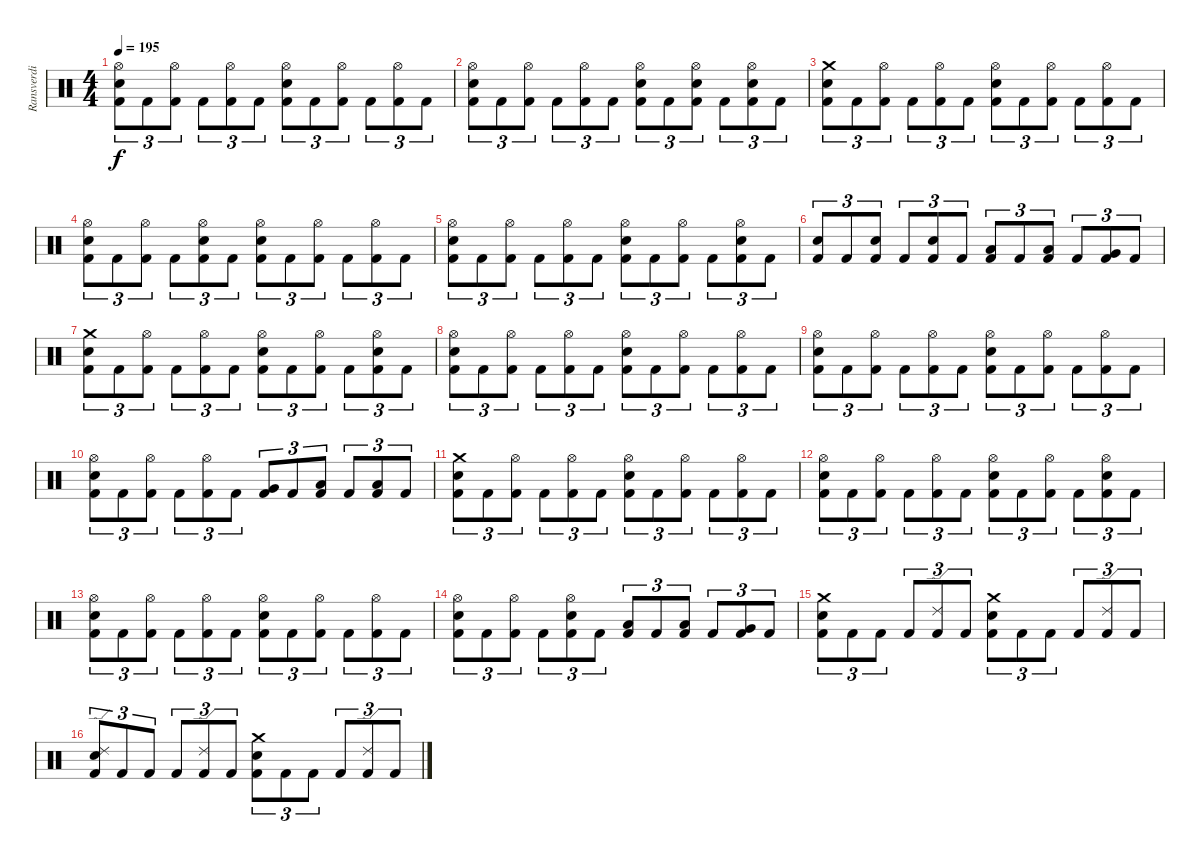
\track ("Ransverdi" "Ransverdi") {instrument percussion}
\staff {score}
\articulation defaults
\ts (4 4)
\tempo 195
\clef neutral
\ks c
("Hi-Hat (open)" "Snare (hit) 2" "Kick (hit) 2").8{tu (3 2) dy f} "Kick (hit) 2".8{tu (3 2)} ("Hi-Hat (open)" "Kick (hit) 2").8{tu (3 2)} "Kick (hit) 2".8{tu (3 2)} ("Hi-Hat (open)" "Kick (hit) 2").8{tu (3 2)} "Kick (hit) 2".8{tu (3 2)} ("Hi-Hat (open)" "Snare (hit) 2" "Kick (hit) 2").8{tu (3 2)} "Kick (hit) 2".8{tu (3 2)} ("Hi-Hat (open)" "Kick (hit) 2").8{tu (3 2)} "Kick (hit) 2".8{tu (3 2)} ("Hi-Hat (open)" "Kick (hit) 2").8{tu (3 2)} "Kick (hit) 2".8{tu (3 2)} |
("Hi-Hat (open)" "Snare (hit) 2" "Kick (hit) 2").8{tu (3 2)} "Kick (hit) 2".8{tu (3 2)} ("Hi-Hat (open)" "Kick (hit) 2").8{tu (3 2)} "Kick (hit) 2".8{tu (3 2)} ("Hi-Hat (open)" "Kick (hit) 2").8{tu (3 2)} "Kick (hit) 2".8{tu (3 2)} ("Hi-Hat (open)" "Snare (hit) 2" "Kick (hit) 2").8{tu (3 2)} "Kick (hit) 2".8{tu (3 2)} ("Hi-Hat (open)" "Snare (hit) 2" "Kick (hit) 2").8{tu (3 2)} "Kick (hit) 2".8{tu (3 2)} ("Hi-Hat (open)" "Snare (hit) 2" "Kick (hit) 2").8{tu (3 2)} "Kick (hit) 2".8{tu (3 2)} |
("Crash medium (hit)" "Snare (hit) 2" "Kick (hit) 2").8{tu (3 2)} "Kick (hit) 2".8{tu (3 2)} ("Hi-Hat (open)" "Kick (hit) 2").8{tu (3 2)} "Kick (hit) 2".8{tu (3 2)} ("Hi-Hat (open)" "Kick (hit) 2").8{tu (3 2)} "Kick (hit) 2".8{tu (3 2)} ("Hi-Hat (open)" "Snare (hit) 2" "Kick (hit) 2").8{tu (3 2)} "Kick (hit) 2".8{tu (3 2)} ("Hi-Hat (open)" "Kick (hit) 2").8{tu (3 2)} "Kick (hit) 2".8{tu (3 2)} ("Hi-Hat (open)" "Kick (hit) 2").8{tu (3 2)} "Kick (hit) 2".8{tu (3 2)} |
("Hi-Hat (open)" "Snare (hit) 2" "Kick (hit) 2").8{tu (3 2)} "Kick (hit) 2".8{tu (3 2)} ("Hi-Hat (open)" "Kick (hit) 2").8{tu (3 2)} "Kick (hit) 2".8{tu (3 2)} ("Hi-Hat (open)" "Snare (hit) 2" "Kick (hit) 2").8{tu (3 2)} "Kick (hit) 2".8{tu (3 2)} ("Hi-Hat (open)" "Snare (hit) 2" "Kick (hit) 2").8{tu (3 2)} "Kick (hit) 2".8{tu (3 2)} ("Hi-Hat (open)" "Kick (hit) 2").8{tu (3 2)} "Kick (hit) 2".8{tu (3 2)} ("Hi-Hat (open)" "Kick (hit) 2").8{tu (3 2)} "Kick (hit) 2".8{tu (3 2)} |
("Hi-Hat (open)" "Snare (hit) 2" "Kick (hit) 2").8{tu (3 2)} "Kick (hit) 2".8{tu (3 2)} ("Hi-Hat (open)" "Kick (hit) 2").8{tu (3 2)} "Kick (hit) 2".8{tu (3 2)} ("Hi-Hat (open)" "Kick (hit) 2").8{tu (3 2)} "Kick (hit) 2".8{tu (3 2)} ("Hi-Hat (open)" "Snare (hit) 2" "Kick (hit) 2").8{tu (3 2)} "Kick (hit) 2".8{tu (3 2)} ("Hi-Hat (open)" "Kick (hit) 2").8{tu (3 2)} "Kick (hit) 2".8{tu (3 2)} ("Hi-Hat (open)" "Snare (hit) 2" "Kick (hit) 2").8{tu (3 2)} "Kick (hit) 2".8{tu (3 2)} |
("Snare (hit) 2" "Kick (hit) 2").8{tu (3 2)} "Kick (hit) 2".8{tu (3 2)} ("Snare (hit) 2" "Kick (hit) 2").8{tu (3 2)} "Kick (hit) 2".8{tu (3 2)} ("Snare (hit) 2" "Kick (hit) 2").8{tu (3 2)} "Kick (hit) 2".8{tu (3 2)} ("Low Tom (hit)" "Kick (hit) 2").8{tu (3 2)} "Kick (hit) 2".8{tu (3 2)} ("Low Tom (hit)" "Kick (hit) 2").8{tu (3 2)} "Kick (hit) 2".8{tu (3 2)} ("Very Low Tom (hit)" "Kick (hit) 2").8{tu (3 2)} "Kick (hit) 2".8{tu (3 2)} |
("Crash medium (hit)" "Snare (hit) 2" "Kick (hit) 2").8{tu (3 2)} "Kick (hit) 2".8{tu (3 2)} ("Hi-Hat (open)" "Kick (hit) 2").8{tu (3 2)} "Kick (hit) 2".8{tu (3 2)} ("Hi-Hat (open)" "Kick (hit) 2").8{tu (3 2)} "Kick (hit) 2".8{tu (3 2)} ("Hi-Hat (open)" "Snare (hit) 2" "Kick (hit) 2").8{tu (3 2)} "Kick (hit) 2".8{tu (3 2)} ("Hi-Hat (open)" "Kick (hit) 2").8{tu (3 2)} "Kick (hit) 2".8{tu (3 2)} ("Hi-Hat (open)" "Snare (hit) 2" "Kick (hit) 2").8{tu (3 2)} "Kick (hit) 2".8{tu (3 2)} |
("Hi-Hat (open)" "Snare (hit) 2" "Kick (hit) 2").8{tu (3 2)} "Kick (hit) 2".8{tu (3 2)} ("Hi-Hat (open)" "Kick (hit) 2").8{tu (3 2)} "Kick (hit) 2".8{tu (3 2)} ("Hi-Hat (open)" "Kick (hit) 2").8{tu (3 2)} "Kick (hit) 2".8{tu (3 2)} ("Hi-Hat (open)" "Snare (hit) 2" "Kick (hit) 2").8{tu (3 2)} "Kick (hit) 2".8{tu (3 2)} ("Hi-Hat (open)" "Kick (hit) 2").8{tu (3 2)} "Kick (hit) 2".8{tu (3 2)} ("Hi-Hat (open)" "Kick (hit) 2").8{tu (3 2)} "Kick (hit) 2".8{tu (3 2)} |
("Hi-Hat (open)" "Snare (hit) 2" "Kick (hit) 2").8{tu (3 2)} "Kick (hit) 2".8{tu (3 2)} ("Hi-Hat (open)" "Kick (hit) 2").8{tu (3 2)} "Kick (hit) 2".8{tu (3 2)} ("Hi-Hat (open)" "Kick (hit) 2").8{tu (3 2)} "Kick (hit) 2".8{tu (3 2)} ("Hi-Hat (open)" "Snare (hit) 2" "Kick (hit) 2").8{tu (3 2)} "Kick (hit) 2".8{tu (3 2)} ("Hi-Hat (open)" "Kick (hit) 2").8{tu (3 2)} "Kick (hit) 2".8{tu (3 2)} ("Hi-Hat (open)" "Kick (hit) 2").8{tu (3 2)} "Kick (hit) 2".8{tu (3 2)} |
("Hi-Hat (open)" "Snare (hit) 2" "Kick (hit) 2").8{tu (3 2)} "Kick (hit) 2".8{tu (3 2)} ("Hi-Hat (open)" "Kick (hit) 2").8{tu (3 2)} "Kick (hit) 2".8{tu (3 2)} ("Hi-Hat (open)" "Kick (hit) 2").8{tu (3 2)} "Kick (hit) 2".8{tu (3 2)} ("Very Low Tom (hit)" "Kick (hit) 2").8{tu (3 2)} "Kick (hit) 2".8{tu (3 2)} ("Low Floor Tom (hit)" "Kick (hit) 2").8{tu (3 2)} "Kick (hit) 2".8{tu (3 2)} ("Low Floor Tom (hit)" "Kick (hit) 2").8{tu (3 2)} "Kick (hit) 2".8{tu (3 2)} |
("Crash medium (hit)" "Snare (hit) 2" "Kick (hit) 2").8{tu (3 2)} "Kick (hit) 2".8{tu (3 2)} ("Hi-Hat (open)" "Kick (hit) 2").8{tu (3 2)} "Kick (hit) 2".8{tu (3 2)} ("Hi-Hat (open)" "Kick (hit) 2").8{tu (3 2)} "Kick (hit) 2".8{tu (3 2)} ("Hi-Hat (open)" "Snare (hit) 2" "Kick (hit) 2").8{tu (3 2)} "Kick (hit) 2".8{tu (3 2)} ("Hi-Hat (open)" "Kick (hit) 2").8{tu (3 2)} "Kick (hit) 2".8{tu (3 2)} ("Hi-Hat (open)" "Kick (hit) 2").8{tu (3 2)} "Kick (hit) 2".8{tu (3 2)} |
("Hi-Hat (open)" "Snare (hit) 2" "Kick (hit) 2").8{tu (3 2)} "Kick (hit) 2".8{tu (3 2)} ("Hi-Hat (open)" "Kick (hit) 2").8{tu (3 2)} "Kick (hit) 2".8{tu (3 2)} ("Hi-Hat (open)" "Kick (hit) 2").8{tu (3 2)} "Kick (hit) 2".8{tu (3 2)} ("Hi-Hat (open)" "Snare (hit) 2" "Kick (hit) 2").8{tu (3 2)} "Kick (hit) 2".8{tu (3 2)} ("Hi-Hat (open)" "Kick (hit) 2").8{tu (3 2)} "Kick (hit) 2".8{tu (3 2)} ("Hi-Hat (open)" "Snare (hit) 2" "Kick (hit) 2").8{tu (3 2)} "Kick (hit) 2".8{tu (3 2)} |
("Hi-Hat (open)" "Snare (hit) 2" "Kick (hit) 2").8{tu (3 2)} "Kick (hit) 2".8{tu (3 2)} ("Hi-Hat (open)" "Kick (hit) 2").8{tu (3 2)} "Kick (hit) 2".8{tu (3 2)} ("Hi-Hat (open)" "Kick (hit) 2").8{tu (3 2)} "Kick (hit) 2".8{tu (3 2)} ("Hi-Hat (open)" "Snare (hit) 2" "Kick (hit) 2").8{tu (3 2)} "Kick (hit) 2".8{tu (3 2)} ("Hi-Hat (open)" "Kick (hit) 2").8{tu (3 2)} "Kick (hit) 2".8{tu (3 2)} ("Hi-Hat (open)" "Kick (hit) 2").8{tu (3 2)} "Kick (hit) 2".8{tu (3 2)} |
("Hi-Hat (open)" "Snare (hit) 2" "Kick (hit) 2").8{tu (3 2)} "Kick (hit) 2".8{tu (3 2)} ("Hi-Hat (open)" "Kick (hit) 2").8{tu (3 2)} "Kick (hit) 2".8{tu (3 2)} ("Hi-Hat (open)" "Snare (hit) 2" "Kick (hit) 2").8{tu (3 2)} "Kick (hit) 2".8{tu (3 2)} ("Low Tom (hit)" "Kick (hit) 2").8{tu (3 2)} "Kick (hit) 2".8{tu (3 2)} ("Low Tom (hit)" "Kick (hit) 2").8{tu (3 2)} "Kick (hit) 2".8{tu (3 2)} ("Very Low Tom (hit)" "Kick (hit) 2").8{tu (3 2)} "Kick (hit) 2".8{tu (3 2)} |
("Crash medium (hit)" "Snare (hit) 2" "Kick (hit) 2").8{tu (3 2)} "Kick (hit) 2".8{tu (3 2)} "Kick (hit) 2".8{tu (3 2)} "Kick (hit) 2".8{tu (3 2)} ("Ride (edge) 2" "Kick (hit) 2").8{tu (3 2)} "Kick (hit) 2".8{tu (3 2)} ("Crash medium (hit)" "Snare (hit) 2" "Kick (hit) 2").8{tu (3 2)} "Kick (hit) 2".8{tu (3 2)} "Kick (hit) 2".8{tu (3 2)} "Kick (hit) 2".8{tu (3 2)} ("Ride (edge) 2" "Kick (hit) 2").8{tu (3 2)} "Kick (hit) 2".8{tu (3 2)} |
("Ride (edge) 2" "Snare (hit) 2" "Kick (hit) 2").8{tu (3 2)} "Kick (hit) 2".8{tu (3 2)} "Kick (hit) 2".8{tu (3 2)} "Kick (hit) 2".8{tu (3 2)} ("Ride (edge) 2" "Kick (hit) 2").8{tu (3 2)} "Kick (hit) 2".8{tu (3 2)} ("Crash medium (hit)" "Snare (hit) 2" "Kick (hit) 2").8{tu (3 2)} "Kick (hit) 2".8{tu (3 2)} "Kick (hit) 2".8{tu (3 2)} "Kick (hit) 2".8{tu (3 2)} ("Ride (edge) 2" "Kick (hit) 2").8{tu (3 2)} "Kick (hit) 2".8{tu (3 2)}
